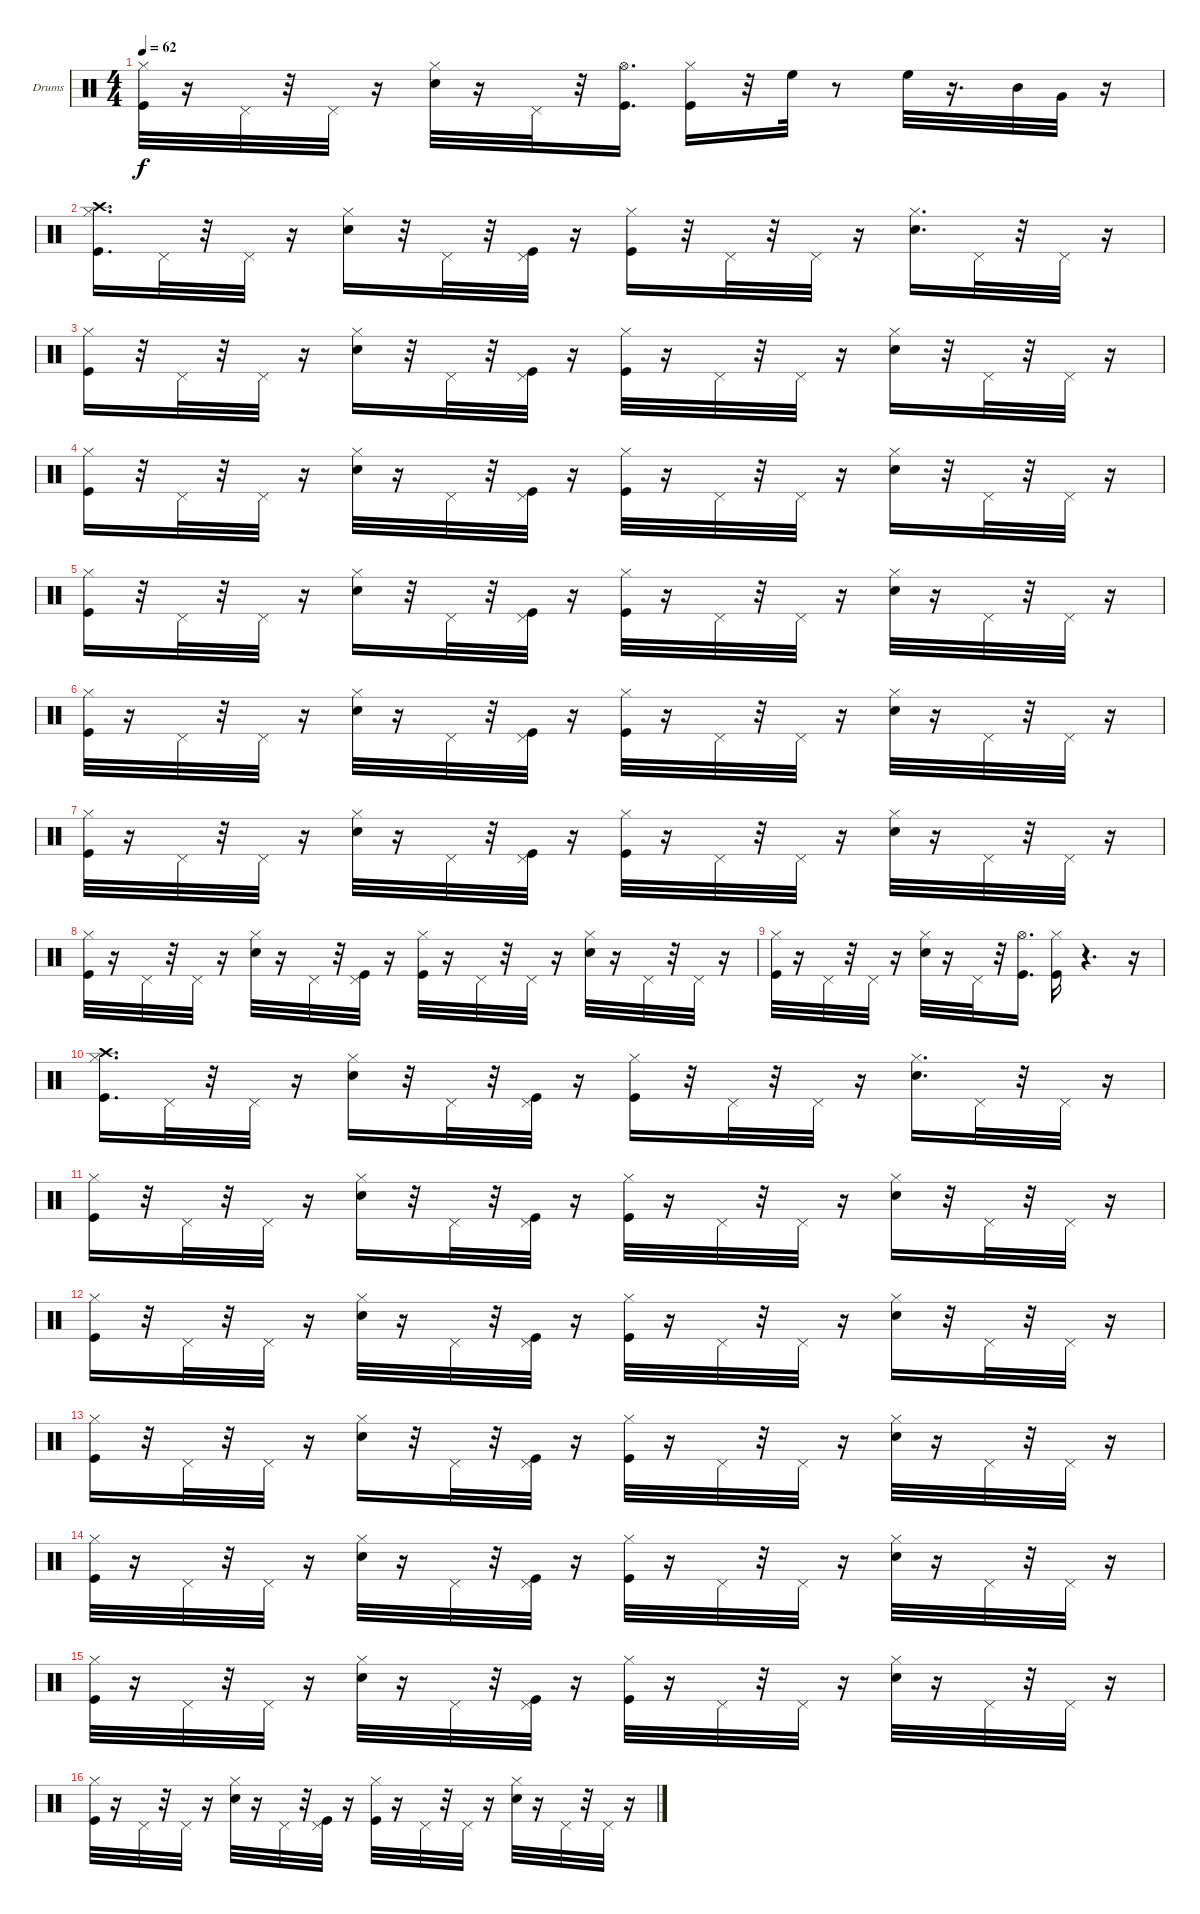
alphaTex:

\bracketExtendMode groupsimilarinstruments
\firstSystemTrackNameOrientation horizontal
\otherSystemsTrackNameOrientation horizontal
\track ("Ударные" "Drums") {instrument percussion}
\staff {score}
\articulation defaults
\ts (4 4)
\tempo 62
\clef neutral
\ks c
("Kick (hit)" "Hi-Hat (closed)").32{dy f} r.16 "Pedal Hi-Hat (hit)".32 r.32 "Pedal Hi-Hat (hit)".32 r.16 ("Snare (hit) 2" "Hi-Hat (closed)").32 r.16 "Pedal Hi-Hat (hit)".32 r.32 ("Kick (hit)" "Hi-Hat (open)").16{d} ("Kick (hit)" "Hi-Hat (closed)").16 r.32 "High Floor Tom (hit)".32 r.8 "High Floor Tom (hit)".32 r.16{d} "Mid Tom (hit)".32 "Very Low Tom (hit)".32 r.16 |
("Kick (hit)" "Hi-Hat (closed)" "Crash high (hit)").16{d} "Pedal Hi-Hat (hit)".32 r.32 "Pedal Hi-Hat (hit)".32 r.16 ("Snare (hit) 2" "Hi-Hat (closed)").16 r.32 "Pedal Hi-Hat (hit)".32 r.32 ("Kick (hit)" "Pedal Hi-Hat (hit)").32 r.16 ("Kick (hit)" "Hi-Hat (closed)").16 r.32 "Pedal Hi-Hat (hit)".32 r.32 "Pedal Hi-Hat (hit)".32 r.16 ("Snare (hit) 2" "Hi-Hat (closed)").16{d} "Pedal Hi-Hat (hit)".32 r.32 "Pedal Hi-Hat (hit)".32 r.16 |
("Kick (hit)" "Hi-Hat (closed)").16 r.32 "Pedal Hi-Hat (hit)".32 r.32 "Pedal Hi-Hat (hit)".32 r.16 ("Snare (hit) 2" "Hi-Hat (closed)").16 r.32 "Pedal Hi-Hat (hit)".32 r.32 ("Kick (hit)" "Pedal Hi-Hat (hit)").32 r.16 ("Kick (hit)" "Hi-Hat (closed)").32 r.16 "Pedal Hi-Hat (hit)".32 r.32 "Pedal Hi-Hat (hit)".32 r.16 ("Snare (hit) 2" "Hi-Hat (closed)").16 r.32 "Pedal Hi-Hat (hit)".32 r.32 "Pedal Hi-Hat (hit)".32 r.16 |
("Kick (hit)" "Hi-Hat (closed)").16 r.32 "Pedal Hi-Hat (hit)".32 r.32 "Pedal Hi-Hat (hit)".32 r.16 ("Snare (hit) 2" "Hi-Hat (closed)").32 r.16 "Pedal Hi-Hat (hit)".32 r.32 ("Kick (hit)" "Pedal Hi-Hat (hit)").32 r.16 ("Kick (hit)" "Hi-Hat (closed)").32 r.16 "Pedal Hi-Hat (hit)".32 r.32 "Pedal Hi-Hat (hit)".32 r.16 ("Snare (hit) 2" "Hi-Hat (closed)").16 r.32 "Pedal Hi-Hat (hit)".32 r.32 "Pedal Hi-Hat (hit)".32 r.16 |
("Kick (hit)" "Hi-Hat (closed)").16 r.32 "Pedal Hi-Hat (hit)".32 r.32 "Pedal Hi-Hat (hit)".32 r.16 ("Snare (hit) 2" "Hi-Hat (closed)").16 r.32 "Pedal Hi-Hat (hit)".32 r.32 ("Kick (hit)" "Pedal Hi-Hat (hit)").32 r.16 ("Kick (hit)" "Hi-Hat (closed)").32 r.16 "Pedal Hi-Hat (hit)".32 r.32 "Pedal Hi-Hat (hit)".32 r.16 ("Snare (hit) 2" "Hi-Hat (closed)").32 r.16 "Pedal Hi-Hat (hit)".32 r.32 "Pedal Hi-Hat (hit)".32 r.16 |
("Kick (hit)" "Hi-Hat (closed)").32 r.16 "Pedal Hi-Hat (hit)".32 r.32 "Pedal Hi-Hat (hit)".32 r.16 ("Snare (hit) 2" "Hi-Hat (closed)").32 r.16 "Pedal Hi-Hat (hit)".32 r.32 ("Kick (hit)" "Pedal Hi-Hat (hit)").32 r.16 ("Kick (hit)" "Hi-Hat (closed)").32 r.16 "Pedal Hi-Hat (hit)".32 r.32 "Pedal Hi-Hat (hit)".32 r.16 ("Snare (hit) 2" "Hi-Hat (closed)").32 r.16 "Pedal Hi-Hat (hit)".32 r.32 "Pedal Hi-Hat (hit)".32 r.16 |
("Kick (hit)" "Hi-Hat (closed)").32 r.16 "Pedal Hi-Hat (hit)".32 r.32 "Pedal Hi-Hat (hit)".32 r.16 ("Snare (hit) 2" "Hi-Hat (closed)").32 r.16 "Pedal Hi-Hat (hit)".32 r.32 ("Kick (hit)" "Pedal Hi-Hat (hit)").32 r.16 ("Kick (hit)" "Hi-Hat (closed)").32 r.16 "Pedal Hi-Hat (hit)".32 r.32 "Pedal Hi-Hat (hit)".32 r.16 ("Snare (hit) 2" "Hi-Hat (closed)").32 r.16 "Pedal Hi-Hat (hit)".32 r.32 "Pedal Hi-Hat (hit)".32 r.16 |
("Kick (hit)" "Hi-Hat (closed)").32 r.16 "Pedal Hi-Hat (hit)".32 r.32 "Pedal Hi-Hat (hit)".32 r.16 ("Snare (hit) 2" "Hi-Hat (closed)").32 r.16 "Pedal Hi-Hat (hit)".32 r.32 ("Kick (hit)" "Pedal Hi-Hat (hit)").32 r.16 ("Kick (hit)" "Hi-Hat (closed)").32 r.16 "Pedal Hi-Hat (hit)".32 r.32 "Pedal Hi-Hat (hit)".32 r.16 ("Snare (hit) 2" "Hi-Hat (closed)").32 r.16 "Pedal Hi-Hat (hit)".32 r.32 "Pedal Hi-Hat (hit)".32 r.16 |
("Kick (hit)" "Hi-Hat (closed)").32 r.16 "Pedal Hi-Hat (hit)".32 r.32 "Pedal Hi-Hat (hit)".32 r.16 ("Snare (hit) 2" "Hi-Hat (closed)").32 r.16 "Pedal Hi-Hat (hit)".32 r.32 ("Kick (hit)" "Hi-Hat (open)").16{d} ("Kick (hit)" "Hi-Hat (closed)").16 r.4{d} r.16 |
("Kick (hit)" "Hi-Hat (closed)" "Crash high (hit)").16{d} "Pedal Hi-Hat (hit)".32 r.32 "Pedal Hi-Hat (hit)".32 r.16 ("Snare (hit) 2" "Hi-Hat (closed)").16 r.32 "Pedal Hi-Hat (hit)".32 r.32 ("Kick (hit)" "Pedal Hi-Hat (hit)").32 r.16 ("Kick (hit)" "Hi-Hat (closed)").16 r.32 "Pedal Hi-Hat (hit)".32 r.32 "Pedal Hi-Hat (hit)".32 r.16 ("Snare (hit) 2" "Hi-Hat (closed)").16{d} "Pedal Hi-Hat (hit)".32 r.32 "Pedal Hi-Hat (hit)".32 r.16 |
("Kick (hit)" "Hi-Hat (closed)").16 r.32 "Pedal Hi-Hat (hit)".32 r.32 "Pedal Hi-Hat (hit)".32 r.16 ("Snare (hit) 2" "Hi-Hat (closed)").16 r.32 "Pedal Hi-Hat (hit)".32 r.32 ("Kick (hit)" "Pedal Hi-Hat (hit)").32 r.16 ("Kick (hit)" "Hi-Hat (closed)").32 r.16 "Pedal Hi-Hat (hit)".32 r.32 "Pedal Hi-Hat (hit)".32 r.16 ("Snare (hit) 2" "Hi-Hat (closed)").16 r.32 "Pedal Hi-Hat (hit)".32 r.32 "Pedal Hi-Hat (hit)".32 r.16 |
("Kick (hit)" "Hi-Hat (closed)").16 r.32 "Pedal Hi-Hat (hit)".32 r.32 "Pedal Hi-Hat (hit)".32 r.16 ("Snare (hit) 2" "Hi-Hat (closed)").32 r.16 "Pedal Hi-Hat (hit)".32 r.32 ("Kick (hit)" "Pedal Hi-Hat (hit)").32 r.16 ("Kick (hit)" "Hi-Hat (closed)").32 r.16 "Pedal Hi-Hat (hit)".32 r.32 "Pedal Hi-Hat (hit)".32 r.16 ("Snare (hit) 2" "Hi-Hat (closed)").16 r.32 "Pedal Hi-Hat (hit)".32 r.32 "Pedal Hi-Hat (hit)".32 r.16 |
("Kick (hit)" "Hi-Hat (closed)").16 r.32 "Pedal Hi-Hat (hit)".32 r.32 "Pedal Hi-Hat (hit)".32 r.16 ("Snare (hit) 2" "Hi-Hat (closed)").16 r.32 "Pedal Hi-Hat (hit)".32 r.32 ("Kick (hit)" "Pedal Hi-Hat (hit)").32 r.16 ("Kick (hit)" "Hi-Hat (closed)").32 r.16 "Pedal Hi-Hat (hit)".32 r.32 "Pedal Hi-Hat (hit)".32 r.16 ("Snare (hit) 2" "Hi-Hat (closed)").32 r.16 "Pedal Hi-Hat (hit)".32 r.32 "Pedal Hi-Hat (hit)".32 r.16 |
("Kick (hit)" "Hi-Hat (closed)").32 r.16 "Pedal Hi-Hat (hit)".32 r.32 "Pedal Hi-Hat (hit)".32 r.16 ("Snare (hit) 2" "Hi-Hat (closed)").32 r.16 "Pedal Hi-Hat (hit)".32 r.32 ("Kick (hit)" "Pedal Hi-Hat (hit)").32 r.16 ("Kick (hit)" "Hi-Hat (closed)").32 r.16 "Pedal Hi-Hat (hit)".32 r.32 "Pedal Hi-Hat (hit)".32 r.16 ("Snare (hit) 2" "Hi-Hat (closed)").32 r.16 "Pedal Hi-Hat (hit)".32 r.32 "Pedal Hi-Hat (hit)".32 r.16 |
("Kick (hit)" "Hi-Hat (closed)").32 r.16 "Pedal Hi-Hat (hit)".32 r.32 "Pedal Hi-Hat (hit)".32 r.16 ("Snare (hit) 2" "Hi-Hat (closed)").32 r.16 "Pedal Hi-Hat (hit)".32 r.32 ("Kick (hit)" "Pedal Hi-Hat (hit)").32 r.16 ("Kick (hit)" "Hi-Hat (closed)").32 r.16 "Pedal Hi-Hat (hit)".32 r.32 "Pedal Hi-Hat (hit)".32 r.16 ("Snare (hit) 2" "Hi-Hat (closed)").32 r.16 "Pedal Hi-Hat (hit)".32 r.32 "Pedal Hi-Hat (hit)".32 r.16 |
("Kick (hit)" "Hi-Hat (closed)").32 r.16 "Pedal Hi-Hat (hit)".32 r.32 "Pedal Hi-Hat (hit)".32 r.16 ("Snare (hit) 2" "Hi-Hat (closed)").32 r.16 "Pedal Hi-Hat (hit)".32 r.32 ("Kick (hit)" "Pedal Hi-Hat (hit)").32 r.16 ("Kick (hit)" "Hi-Hat (closed)").32 r.16 "Pedal Hi-Hat (hit)".32 r.32 "Pedal Hi-Hat (hit)".32 r.16 ("Snare (hit) 2" "Hi-Hat (closed)").32 r.16 "Pedal Hi-Hat (hit)".32 r.32 "Pedal Hi-Hat (hit)".32 r.16
